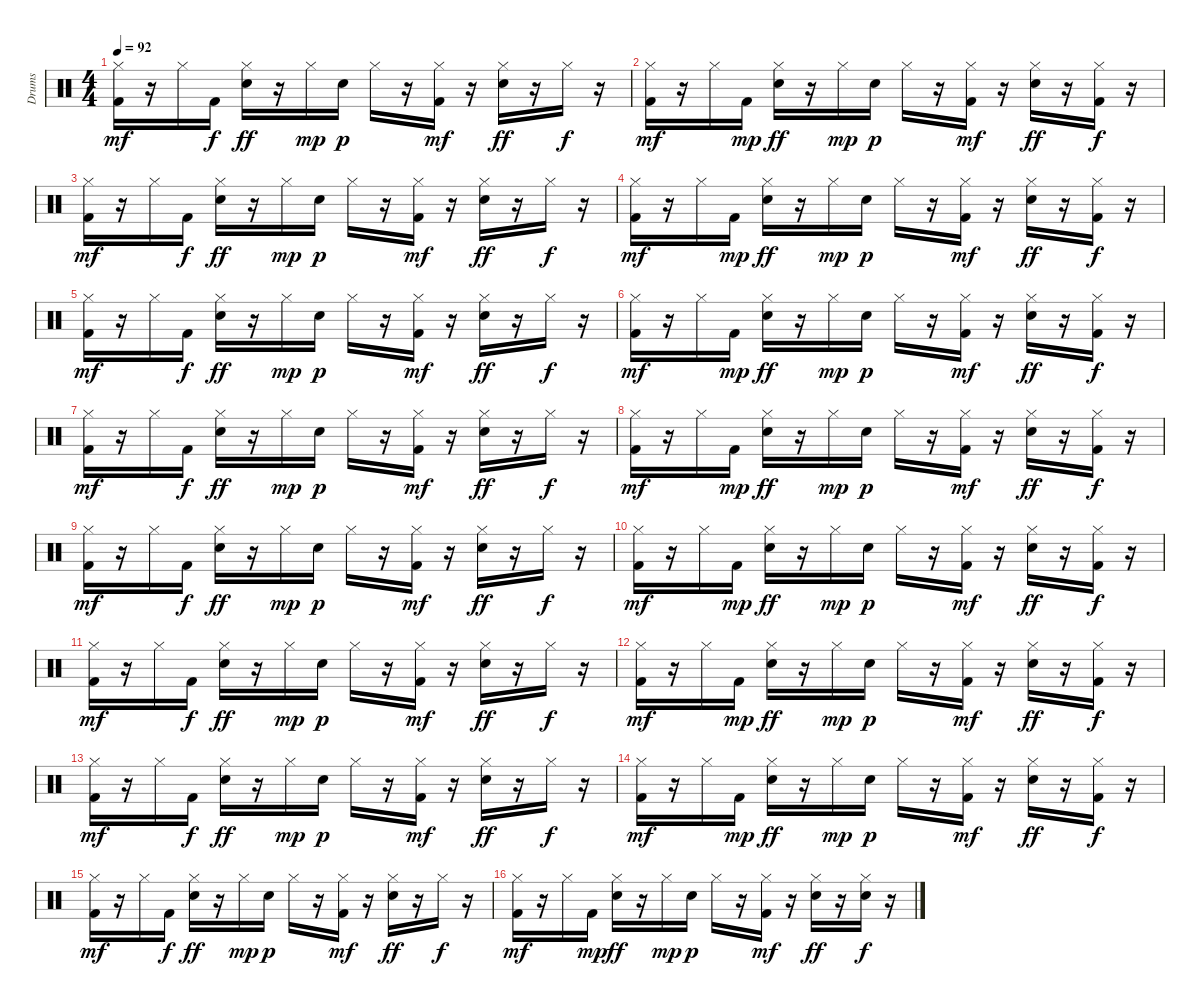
\track ("Drums" "Drums") {instrument percussion}
\staff {score}
\articulation defaults
\ts (4 4)
\tempo 92
\clef neutral
\ks c
("Hi-Hat (closed)" "Kick (hit) 2").16{dy mf} r.16 "Hi-Hat (closed)".16 "Kick (hit) 2".16{dy f} ("Hi-Hat (closed)" "Snare (hit) 2").16{dy ff} r.16 "Hi-Hat (closed)".16{dy mp} "Snare (hit) 2".16{dy p} "Hi-Hat (closed)".16 r.16 ("Hi-Hat (closed)" "Kick (hit) 2").16{dy mf} r.16 ("Hi-Hat (closed)" "Snare (hit) 2").16{dy ff} r.16 "Hi-Hat (closed)".16{dy f} r.16 |
("Hi-Hat (closed)" "Kick (hit) 2").16{dy mf} r.16 "Hi-Hat (closed)".16 "Kick (hit) 2".16{dy mp} ("Hi-Hat (closed)" "Snare (hit) 2").16{dy ff} r.16 "Hi-Hat (closed)".16{dy mp} "Snare (hit) 2".16{dy p} "Hi-Hat (closed)".16 r.16 ("Hi-Hat (closed)" "Kick (hit) 2").16{dy mf} r.16 ("Hi-Hat (closed)" "Snare (hit) 2").16{dy ff} r.16 ("Hi-Hat (closed)" "Kick (hit) 2").16{dy f} r.16 |
("Hi-Hat (closed)" "Kick (hit) 2").16{dy mf} r.16 "Hi-Hat (closed)".16 "Kick (hit) 2".16{dy f} ("Hi-Hat (closed)" "Snare (hit) 2").16{dy ff} r.16 "Hi-Hat (closed)".16{dy mp} "Snare (hit) 2".16{dy p} "Hi-Hat (closed)".16 r.16 ("Hi-Hat (closed)" "Kick (hit) 2").16{dy mf} r.16 ("Hi-Hat (closed)" "Snare (hit) 2").16{dy ff} r.16 "Hi-Hat (closed)".16{dy f} r.16 |
("Hi-Hat (closed)" "Kick (hit) 2").16{dy mf} r.16 "Hi-Hat (closed)".16 "Kick (hit) 2".16{dy mp} ("Hi-Hat (closed)" "Snare (hit) 2").16{dy ff} r.16 "Hi-Hat (closed)".16{dy mp} "Snare (hit) 2".16{dy p} "Hi-Hat (closed)".16 r.16 ("Hi-Hat (closed)" "Kick (hit) 2").16{dy mf} r.16 ("Hi-Hat (closed)" "Snare (hit) 2").16{dy ff} r.16 ("Hi-Hat (closed)" "Kick (hit) 2").16{dy f} r.16 |
("Hi-Hat (closed)" "Kick (hit) 2").16{dy mf} r.16 "Hi-Hat (closed)".16 "Kick (hit) 2".16{dy f} ("Hi-Hat (closed)" "Snare (hit) 2").16{dy ff} r.16 "Hi-Hat (closed)".16{dy mp} "Snare (hit) 2".16{dy p} "Hi-Hat (closed)".16 r.16 ("Hi-Hat (closed)" "Kick (hit) 2").16{dy mf} r.16 ("Hi-Hat (closed)" "Snare (hit) 2").16{dy ff} r.16 "Hi-Hat (closed)".16{dy f} r.16 |
("Hi-Hat (closed)" "Kick (hit) 2").16{dy mf} r.16 "Hi-Hat (closed)".16 "Kick (hit) 2".16{dy mp} ("Hi-Hat (closed)" "Snare (hit) 2").16{dy ff} r.16 "Hi-Hat (closed)".16{dy mp} "Snare (hit) 2".16{dy p} "Hi-Hat (closed)".16 r.16 ("Hi-Hat (closed)" "Kick (hit) 2").16{dy mf} r.16 ("Hi-Hat (closed)" "Snare (hit) 2").16{dy ff} r.16 ("Hi-Hat (closed)" "Kick (hit) 2").16{dy f} r.16 |
("Hi-Hat (closed)" "Kick (hit) 2").16{dy mf} r.16 "Hi-Hat (closed)".16 "Kick (hit) 2".16{dy f} ("Hi-Hat (closed)" "Snare (hit) 2").16{dy ff} r.16 "Hi-Hat (closed)".16{dy mp} "Snare (hit) 2".16{dy p} "Hi-Hat (closed)".16 r.16 ("Hi-Hat (closed)" "Kick (hit) 2").16{dy mf} r.16 ("Hi-Hat (closed)" "Snare (hit) 2").16{dy ff} r.16 "Hi-Hat (closed)".16{dy f} r.16 |
("Hi-Hat (closed)" "Kick (hit) 2").16{dy mf} r.16 "Hi-Hat (closed)".16 "Kick (hit) 2".16{dy mp} ("Hi-Hat (closed)" "Snare (hit) 2").16{dy ff} r.16 "Hi-Hat (closed)".16{dy mp} "Snare (hit) 2".16{dy p} "Hi-Hat (closed)".16 r.16 ("Hi-Hat (closed)" "Kick (hit) 2").16{dy mf} r.16 ("Hi-Hat (closed)" "Snare (hit) 2").16{dy ff} r.16 ("Hi-Hat (closed)" "Kick (hit) 2").16{dy f} r.16 |
("Hi-Hat (closed)" "Kick (hit) 2").16{dy mf} r.16 "Hi-Hat (closed)".16 "Kick (hit) 2".16{dy f} ("Hi-Hat (closed)" "Snare (hit) 2").16{dy ff} r.16 "Hi-Hat (closed)".16{dy mp} "Snare (hit) 2".16{dy p} "Hi-Hat (closed)".16 r.16 ("Hi-Hat (closed)" "Kick (hit) 2").16{dy mf} r.16 ("Hi-Hat (closed)" "Snare (hit) 2").16{dy ff} r.16 "Hi-Hat (closed)".16{dy f} r.16 |
("Hi-Hat (closed)" "Kick (hit) 2").16{dy mf} r.16 "Hi-Hat (closed)".16 "Kick (hit) 2".16{dy mp} ("Hi-Hat (closed)" "Snare (hit) 2").16{dy ff} r.16 "Hi-Hat (closed)".16{dy mp} "Snare (hit) 2".16{dy p} "Hi-Hat (closed)".16 r.16 ("Hi-Hat (closed)" "Kick (hit) 2").16{dy mf} r.16 ("Hi-Hat (closed)" "Snare (hit) 2").16{dy ff} r.16 ("Hi-Hat (closed)" "Kick (hit) 2").16{dy f} r.16 |
("Hi-Hat (closed)" "Kick (hit) 2").16{dy mf} r.16 "Hi-Hat (closed)".16 "Kick (hit) 2".16{dy f} ("Hi-Hat (closed)" "Snare (hit) 2").16{dy ff} r.16 "Hi-Hat (closed)".16{dy mp} "Snare (hit) 2".16{dy p} "Hi-Hat (closed)".16 r.16 ("Hi-Hat (closed)" "Kick (hit) 2").16{dy mf} r.16 ("Hi-Hat (closed)" "Snare (hit) 2").16{dy ff} r.16 "Hi-Hat (closed)".16{dy f} r.16 |
("Hi-Hat (closed)" "Kick (hit) 2").16{dy mf} r.16 "Hi-Hat (closed)".16 "Kick (hit) 2".16{dy mp} ("Hi-Hat (closed)" "Snare (hit) 2").16{dy ff} r.16 "Hi-Hat (closed)".16{dy mp} "Snare (hit) 2".16{dy p} "Hi-Hat (closed)".16 r.16 ("Hi-Hat (closed)" "Kick (hit) 2").16{dy mf} r.16 ("Hi-Hat (closed)" "Snare (hit) 2").16{dy ff} r.16 ("Hi-Hat (closed)" "Kick (hit) 2").16{dy f} r.16 |
("Hi-Hat (closed)" "Kick (hit) 2").16{dy mf} r.16 "Hi-Hat (closed)".16 "Kick (hit) 2".16{dy f} ("Hi-Hat (closed)" "Snare (hit) 2").16{dy ff} r.16 "Hi-Hat (closed)".16{dy mp} "Snare (hit) 2".16{dy p} "Hi-Hat (closed)".16 r.16 ("Hi-Hat (closed)" "Kick (hit) 2").16{dy mf} r.16 ("Hi-Hat (closed)" "Snare (hit) 2").16{dy ff} r.16 "Hi-Hat (closed)".16{dy f} r.16 |
("Hi-Hat (closed)" "Kick (hit) 2").16{dy mf} r.16 "Hi-Hat (closed)".16 "Kick (hit) 2".16{dy mp} ("Hi-Hat (closed)" "Snare (hit) 2").16{dy ff} r.16 "Hi-Hat (closed)".16{dy mp} "Snare (hit) 2".16{dy p} "Hi-Hat (closed)".16 r.16 ("Hi-Hat (closed)" "Kick (hit) 2").16{dy mf} r.16 ("Hi-Hat (closed)" "Snare (hit) 2").16{dy ff} r.16 ("Hi-Hat (closed)" "Kick (hit) 2").16{dy f} r.16 |
("Hi-Hat (closed)" "Kick (hit) 2").16{dy mf} r.16 "Hi-Hat (closed)".16 "Kick (hit) 2".16{dy f} ("Hi-Hat (closed)" "Snare (hit) 2").16{dy ff} r.16 "Hi-Hat (closed)".16{dy mp} "Snare (hit) 2".16{dy p} "Hi-Hat (closed)".16 r.16 ("Hi-Hat (closed)" "Kick (hit) 2").16{dy mf} r.16 ("Hi-Hat (closed)" "Snare (hit) 2").16{dy ff} r.16 "Hi-Hat (closed)".16{dy f} r.16 |
("Hi-Hat (closed)" "Kick (hit) 2").16{dy mf} r.16 "Hi-Hat (closed)".16 "Kick (hit) 2".16{dy mp} ("Hi-Hat (closed)" "Snare (hit) 2").16{dy ff} r.16 "Hi-Hat (closed)".16{dy mp} "Snare (hit) 2".16{dy p} "Hi-Hat (closed)".16 r.16 ("Hi-Hat (closed)" "Kick (hit) 2").16{dy mf} r.16 ("Hi-Hat (closed)" "Snare (hit) 2").16{dy ff} r.16 ("Hi-Hat (closed)" "Snare (hit) 2").16{dy f} r.16
